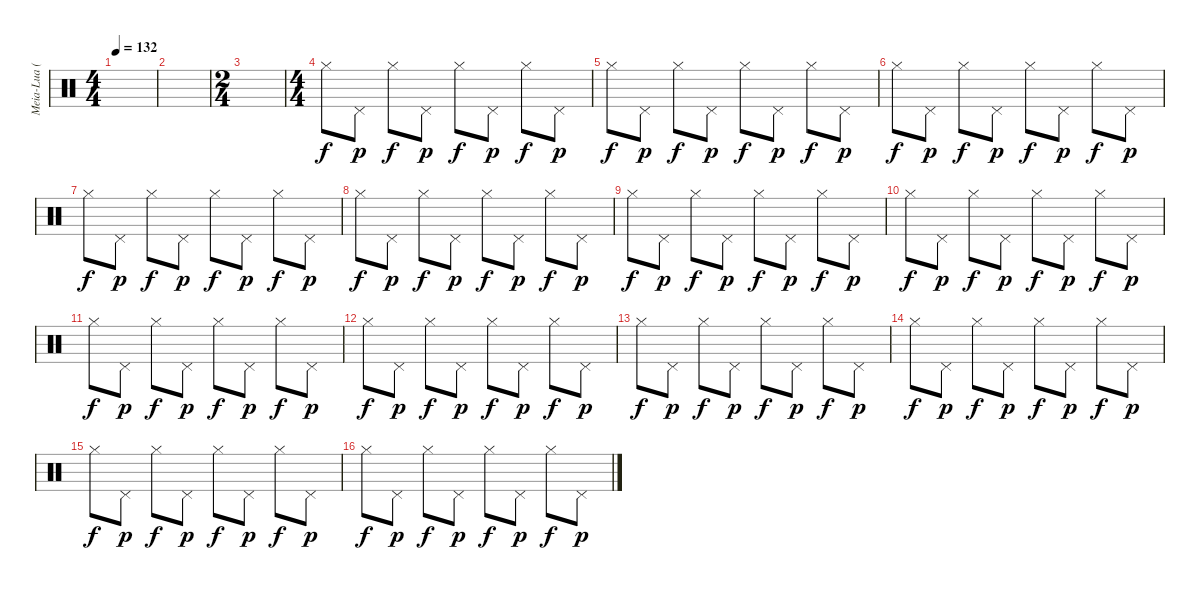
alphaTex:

\track ("Meia-Lua (hehe)" "Meia-Lua (") {instrument percussion}
\staff {score}
\articulation defaults
\ts (4 4)
\tempo 132
\clef neutral
\ks c
|
|
\ts (2 4)
|
\ts (4 4)
"Hi-Hat (closed)".8{dy f} "Pedal Hi-Hat (hit)".8{dy p} "Hi-Hat (closed)".8{dy f} "Pedal Hi-Hat (hit)".8{dy p} "Hi-Hat (closed)".8{dy f} "Pedal Hi-Hat (hit)".8{dy p} "Hi-Hat (closed)".8{dy f} "Pedal Hi-Hat (hit)".8{dy p} |
"Hi-Hat (closed)".8{dy f} "Pedal Hi-Hat (hit)".8{dy p} "Hi-Hat (closed)".8{dy f} "Pedal Hi-Hat (hit)".8{dy p} "Hi-Hat (closed)".8{dy f} "Pedal Hi-Hat (hit)".8{dy p} "Hi-Hat (closed)".8{dy f} "Pedal Hi-Hat (hit)".8{dy p} |
"Hi-Hat (closed)".8{dy f} "Pedal Hi-Hat (hit)".8{dy p} "Hi-Hat (closed)".8{dy f} "Pedal Hi-Hat (hit)".8{dy p} "Hi-Hat (closed)".8{dy f} "Pedal Hi-Hat (hit)".8{dy p} "Hi-Hat (closed)".8{dy f} "Pedal Hi-Hat (hit)".8{dy p} |
"Hi-Hat (closed)".8{dy f} "Pedal Hi-Hat (hit)".8{dy p} "Hi-Hat (closed)".8{dy f} "Pedal Hi-Hat (hit)".8{dy p} "Hi-Hat (closed)".8{dy f} "Pedal Hi-Hat (hit)".8{dy p} "Hi-Hat (closed)".8{dy f} "Pedal Hi-Hat (hit)".8{dy p} |
"Hi-Hat (closed)".8{dy f} "Pedal Hi-Hat (hit)".8{dy p} "Hi-Hat (closed)".8{dy f} "Pedal Hi-Hat (hit)".8{dy p} "Hi-Hat (closed)".8{dy f} "Pedal Hi-Hat (hit)".8{dy p} "Hi-Hat (closed)".8{dy f} "Pedal Hi-Hat (hit)".8{dy p} |
"Hi-Hat (closed)".8{dy f} "Pedal Hi-Hat (hit)".8{dy p} "Hi-Hat (closed)".8{dy f} "Pedal Hi-Hat (hit)".8{dy p} "Hi-Hat (closed)".8{dy f} "Pedal Hi-Hat (hit)".8{dy p} "Hi-Hat (closed)".8{dy f} "Pedal Hi-Hat (hit)".8{dy p} |
"Hi-Hat (closed)".8{dy f} "Pedal Hi-Hat (hit)".8{dy p} "Hi-Hat (closed)".8{dy f} "Pedal Hi-Hat (hit)".8{dy p} "Hi-Hat (closed)".8{dy f} "Pedal Hi-Hat (hit)".8{dy p} "Hi-Hat (closed)".8{dy f} "Pedal Hi-Hat (hit)".8{dy p} |
"Hi-Hat (closed)".8{dy f} "Pedal Hi-Hat (hit)".8{dy p} "Hi-Hat (closed)".8{dy f} "Pedal Hi-Hat (hit)".8{dy p} "Hi-Hat (closed)".8{dy f} "Pedal Hi-Hat (hit)".8{dy p} "Hi-Hat (closed)".8{dy f} "Pedal Hi-Hat (hit)".8{dy p} |
"Hi-Hat (closed)".8{dy f} "Pedal Hi-Hat (hit)".8{dy p} "Hi-Hat (closed)".8{dy f} "Pedal Hi-Hat (hit)".8{dy p} "Hi-Hat (closed)".8{dy f} "Pedal Hi-Hat (hit)".8{dy p} "Hi-Hat (closed)".8{dy f} "Pedal Hi-Hat (hit)".8{dy p} |
"Hi-Hat (closed)".8{dy f} "Pedal Hi-Hat (hit)".8{dy p} "Hi-Hat (closed)".8{dy f} "Pedal Hi-Hat (hit)".8{dy p} "Hi-Hat (closed)".8{dy f} "Pedal Hi-Hat (hit)".8{dy p} "Hi-Hat (closed)".8{dy f} "Pedal Hi-Hat (hit)".8{dy p} |
"Hi-Hat (closed)".8{dy f} "Pedal Hi-Hat (hit)".8{dy p} "Hi-Hat (closed)".8{dy f} "Pedal Hi-Hat (hit)".8{dy p} "Hi-Hat (closed)".8{dy f} "Pedal Hi-Hat (hit)".8{dy p} "Hi-Hat (closed)".8{dy f} "Pedal Hi-Hat (hit)".8{dy p} |
"Hi-Hat (closed)".8{dy f} "Pedal Hi-Hat (hit)".8{dy p} "Hi-Hat (closed)".8{dy f} "Pedal Hi-Hat (hit)".8{dy p} "Hi-Hat (closed)".8{dy f} "Pedal Hi-Hat (hit)".8{dy p} "Hi-Hat (closed)".8{dy f} "Pedal Hi-Hat (hit)".8{dy p} |
"Hi-Hat (closed)".8{dy f} "Pedal Hi-Hat (hit)".8{dy p} "Hi-Hat (closed)".8{dy f} "Pedal Hi-Hat (hit)".8{dy p} "Hi-Hat (closed)".8{dy f} "Pedal Hi-Hat (hit)".8{dy p} "Hi-Hat (closed)".8{dy f} "Pedal Hi-Hat (hit)".8{dy p}
